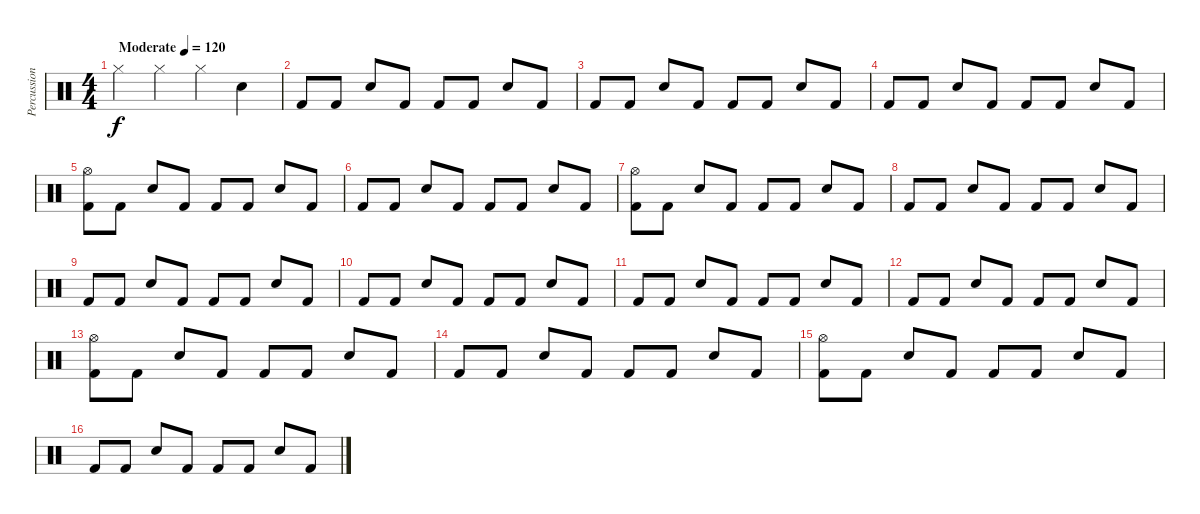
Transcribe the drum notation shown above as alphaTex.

\track ("Percussion" "Percussion") {instrument percussion}
\staff {score}
\articulation defaults
\ts (4 4)
\tempo (120 "Moderate")
\clef neutral
\ks c "Hi-Hat (closed)".4{dy f} "Hi-Hat (closed)".4 "Hi-Hat (closed)".4 "Electric Snare (hit)".4
|
"Kick (hit) 2".8 "Kick (hit) 2".8 "Electric Snare (hit)".8 "Kick (hit) 2".8 "Kick (hit) 2".8 "Kick (hit) 2".8 "Electric Snare (hit)".8 "Kick (hit) 2".8 |
"Kick (hit) 2".8 "Kick (hit) 2".8 "Electric Snare (hit)".8 "Kick (hit) 2".8 "Kick (hit) 2".8 "Kick (hit) 2".8 "Electric Snare (hit)".8 "Kick (hit) 2".8 |
"Kick (hit) 2".8 "Kick (hit) 2".8 "Electric Snare (hit)".8 "Kick (hit) 2".8 "Kick (hit) 2".8 "Kick (hit) 2".8 "Electric Snare (hit)".8 "Kick (hit) 2".8 |
("Kick (hit) 2" "Hi-Hat (open)").8 "Kick (hit) 2".8 "Electric Snare (hit)".8 "Kick (hit) 2".8 "Kick (hit) 2".8 "Kick (hit) 2".8 "Electric Snare (hit)".8 "Kick (hit) 2".8 |
"Kick (hit) 2".8 "Kick (hit) 2".8 "Electric Snare (hit)".8 "Kick (hit) 2".8 "Kick (hit) 2".8 "Kick (hit) 2".8 "Electric Snare (hit)".8 "Kick (hit) 2".8 |
("Kick (hit) 2" "Hi-Hat (open)").8 "Kick (hit) 2".8 "Electric Snare (hit)".8 "Kick (hit) 2".8 "Kick (hit) 2".8 "Kick (hit) 2".8 "Electric Snare (hit)".8 "Kick (hit) 2".8 |
"Kick (hit) 2".8 "Kick (hit) 2".8 "Electric Snare (hit)".8 "Kick (hit) 2".8 "Kick (hit) 2".8 "Kick (hit) 2".8 "Electric Snare (hit)".8 "Kick (hit) 2".8 |
"Kick (hit) 2".8 "Kick (hit) 2".8 "Electric Snare (hit)".8 "Kick (hit) 2".8 "Kick (hit) 2".8 "Kick (hit) 2".8 "Electric Snare (hit)".8 "Kick (hit) 2".8 |
"Kick (hit) 2".8 "Kick (hit) 2".8 "Electric Snare (hit)".8 "Kick (hit) 2".8 "Kick (hit) 2".8 "Kick (hit) 2".8 "Electric Snare (hit)".8 "Kick (hit) 2".8 |
"Kick (hit) 2".8 "Kick (hit) 2".8 "Electric Snare (hit)".8 "Kick (hit) 2".8 "Kick (hit) 2".8 "Kick (hit) 2".8 "Electric Snare (hit)".8 "Kick (hit) 2".8 |
"Kick (hit) 2".8 "Kick (hit) 2".8 "Electric Snare (hit)".8 "Kick (hit) 2".8 "Kick (hit) 2".8 "Kick (hit) 2".8 "Electric Snare (hit)".8 "Kick (hit) 2".8 |
("Kick (hit) 2" "Hi-Hat (open)").8 "Kick (hit) 2".8 "Electric Snare (hit)".8 "Kick (hit) 2".8 "Kick (hit) 2".8 "Kick (hit) 2".8 "Electric Snare (hit)".8 "Kick (hit) 2".8 |
"Kick (hit) 2".8 "Kick (hit) 2".8 "Electric Snare (hit)".8 "Kick (hit) 2".8 "Kick (hit) 2".8 "Kick (hit) 2".8 "Electric Snare (hit)".8 "Kick (hit) 2".8 |
("Kick (hit) 2" "Hi-Hat (open)").8 "Kick (hit) 2".8 "Electric Snare (hit)".8 "Kick (hit) 2".8 "Kick (hit) 2".8 "Kick (hit) 2".8 "Electric Snare (hit)".8 "Kick (hit) 2".8 |
"Kick (hit) 2".8 "Kick (hit) 2".8 "Electric Snare (hit)".8 "Kick (hit) 2".8 "Kick (hit) 2".8 "Kick (hit) 2".8 "Electric Snare (hit)".8 "Kick (hit) 2".8
